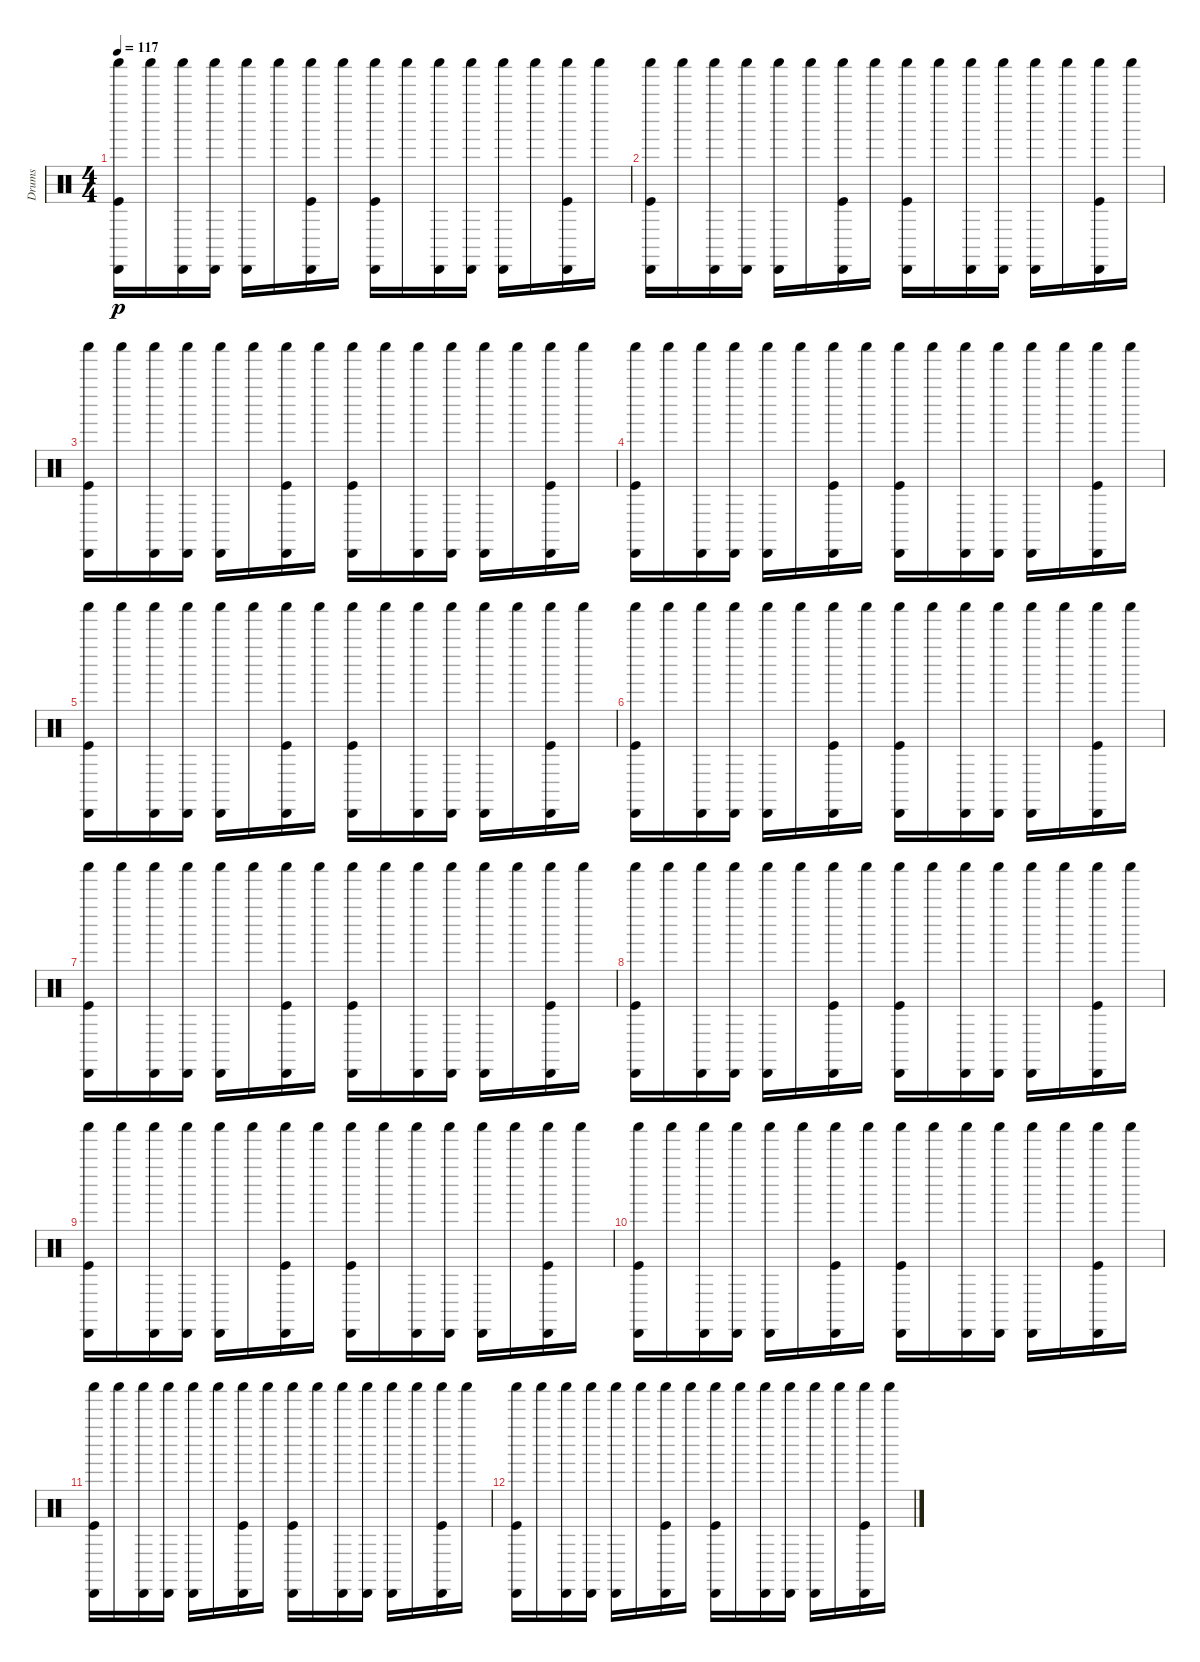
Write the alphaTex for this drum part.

\track ("Drums" "Drums") {instrument percussion}
\staff {score}
\articulation defaults
\ts (4 4)
\tempo 117
\clef neutral
\ks c
("Kick (hit)" "Shaker (hit)" "Cabasa (hit)").16{dy p volume 12} "Shaker (hit)".16 ("Shaker (hit)" "Cabasa (hit)").16{volume 12} ("Shaker (hit)" "Cabasa (hit)").16 ("Shaker (hit)" "Cabasa (hit)").16{volume 12} "Shaker (hit)".16 ("Kick (hit)" "Shaker (hit)" "Cabasa (hit)").16{volume 12} "Shaker (hit)".16 ("Kick (hit)" "Shaker (hit)" "Cabasa (hit)").16{volume 12} "Shaker (hit)".16 ("Shaker (hit)" "Cabasa (hit)").16{volume 11} ("Shaker (hit)" "Cabasa (hit)").16 ("Shaker (hit)" "Cabasa (hit)").16{volume 11} "Shaker (hit)".16 ("Kick (hit)" "Shaker (hit)" "Cabasa (hit)").16{volume 11} "Shaker (hit)".16 |
("Kick (hit)" "Shaker (hit)" "Cabasa (hit)").16{volume 11} "Shaker (hit)".16 ("Shaker (hit)" "Cabasa (hit)").16{volume 11} ("Shaker (hit)" "Cabasa (hit)").16 ("Shaker (hit)" "Cabasa (hit)").16{volume 11} "Shaker (hit)".16 ("Kick (hit)" "Shaker (hit)" "Cabasa (hit)").16{volume 11} "Shaker (hit)".16 ("Kick (hit)" "Shaker (hit)" "Cabasa (hit)").16{volume 10} "Shaker (hit)".16 ("Shaker (hit)" "Cabasa (hit)").16{volume 10} ("Shaker (hit)" "Cabasa (hit)").16 ("Shaker (hit)" "Cabasa (hit)").16{volume 10} "Shaker (hit)".16 ("Kick (hit)" "Shaker (hit)" "Cabasa (hit)").16{volume 10} "Shaker (hit)".16 |
("Kick (hit)" "Shaker (hit)" "Cabasa (hit)").16{volume 10} "Shaker (hit)".16 ("Shaker (hit)" "Cabasa (hit)").16{volume 10} ("Shaker (hit)" "Cabasa (hit)").16 ("Shaker (hit)" "Cabasa (hit)").16{volume 10} "Shaker (hit)".16 ("Kick (hit)" "Shaker (hit)" "Cabasa (hit)").16{volume 10} "Shaker (hit)".16 ("Kick (hit)" "Shaker (hit)" "Cabasa (hit)").16{volume 10} "Shaker (hit)".16 ("Shaker (hit)" "Cabasa (hit)").16{volume 9} ("Shaker (hit)" "Cabasa (hit)").16 ("Shaker (hit)" "Cabasa (hit)").16{volume 9} "Shaker (hit)".16 ("Kick (hit)" "Shaker (hit)" "Cabasa (hit)").16{volume 9} "Shaker (hit)".16 |
("Kick (hit)" "Shaker (hit)" "Cabasa (hit)").16{volume 9} "Shaker (hit)".16 ("Shaker (hit)" "Cabasa (hit)").16{volume 9} ("Shaker (hit)" "Cabasa (hit)").16 ("Shaker (hit)" "Cabasa (hit)").16{volume 9} "Shaker (hit)".16 ("Kick (hit)" "Shaker (hit)" "Cabasa (hit)").16{volume 9} "Shaker (hit)".16 ("Kick (hit)" "Shaker (hit)" "Cabasa (hit)").16{volume 8} "Shaker (hit)".16 ("Shaker (hit)" "Cabasa (hit)").16{volume 8} ("Shaker (hit)" "Cabasa (hit)").16 ("Shaker (hit)" "Cabasa (hit)").16{volume 8} "Shaker (hit)".16 ("Kick (hit)" "Shaker (hit)" "Cabasa (hit)").16{volume 8} "Shaker (hit)".16 |
("Kick (hit)" "Shaker (hit)" "Cabasa (hit)").16{volume 8} "Shaker (hit)".16 ("Shaker (hit)" "Cabasa (hit)").16{volume 8} ("Shaker (hit)" "Cabasa (hit)").16 ("Shaker (hit)" "Cabasa (hit)").16{volume 8} "Shaker (hit)".16 ("Kick (hit)" "Shaker (hit)" "Cabasa (hit)").16{volume 8} "Shaker (hit)".16 ("Kick (hit)" "Shaker (hit)" "Cabasa (hit)").16{volume 8} "Shaker (hit)".16 ("Shaker (hit)" "Cabasa (hit)").16{volume 7} ("Shaker (hit)" "Cabasa (hit)").16 ("Shaker (hit)" "Cabasa (hit)").16{volume 7} "Shaker (hit)".16 ("Kick (hit)" "Shaker (hit)" "Cabasa (hit)").16{volume 7} "Shaker (hit)".16 |
("Kick (hit)" "Shaker (hit)" "Cabasa (hit)").16{volume 7} "Shaker (hit)".16 ("Shaker (hit)" "Cabasa (hit)").16{volume 7} ("Shaker (hit)" "Cabasa (hit)").16 ("Shaker (hit)" "Cabasa (hit)").16{volume 7} "Shaker (hit)".16 ("Kick (hit)" "Shaker (hit)" "Cabasa (hit)").16{volume 7} "Shaker (hit)".16 ("Kick (hit)" "Shaker (hit)" "Cabasa (hit)").16{volume 6} "Shaker (hit)".16 ("Shaker (hit)" "Cabasa (hit)").16{volume 6} ("Shaker (hit)" "Cabasa (hit)").16 ("Shaker (hit)" "Cabasa (hit)").16{volume 6} "Shaker (hit)".16 ("Kick (hit)" "Shaker (hit)" "Cabasa (hit)").16{volume 6} "Shaker (hit)".16 |
("Kick (hit)" "Shaker (hit)" "Cabasa (hit)").16{volume 6} "Shaker (hit)".16 ("Shaker (hit)" "Cabasa (hit)").16{volume 6} ("Shaker (hit)" "Cabasa (hit)").16 ("Shaker (hit)" "Cabasa (hit)").16{volume 6} "Shaker (hit)".16 ("Kick (hit)" "Shaker (hit)" "Cabasa (hit)").16{volume 6} "Shaker (hit)".16 ("Kick (hit)" "Shaker (hit)" "Cabasa (hit)").16{volume 6} "Shaker (hit)".16 ("Shaker (hit)" "Cabasa (hit)").16{volume 5} ("Shaker (hit)" "Cabasa (hit)").16 ("Shaker (hit)" "Cabasa (hit)").16{volume 5} "Shaker (hit)".16 ("Kick (hit)" "Shaker (hit)" "Cabasa (hit)").16{volume 5} "Shaker (hit)".16 |
("Kick (hit)" "Shaker (hit)" "Cabasa (hit)").16{volume 5} "Shaker (hit)".16 ("Shaker (hit)" "Cabasa (hit)").16{volume 5} ("Shaker (hit)" "Cabasa (hit)").16 ("Shaker (hit)" "Cabasa (hit)").16{volume 5} "Shaker (hit)".16 ("Kick (hit)" "Shaker (hit)" "Cabasa (hit)").16{volume 5} "Shaker (hit)".16 ("Kick (hit)" "Shaker (hit)" "Cabasa (hit)").16{volume 4} "Shaker (hit)".16 ("Shaker (hit)" "Cabasa (hit)").16{volume 4} ("Shaker (hit)" "Cabasa (hit)").16 ("Shaker (hit)" "Cabasa (hit)").16{volume 4} "Shaker (hit)".16 ("Kick (hit)" "Shaker (hit)" "Cabasa (hit)").16{volume 4} "Shaker (hit)".16 |
("Kick (hit)" "Shaker (hit)" "Cabasa (hit)").16{volume 4} "Shaker (hit)".16 ("Shaker (hit)" "Cabasa (hit)").16{volume 4} ("Shaker (hit)" "Cabasa (hit)").16 ("Shaker (hit)" "Cabasa (hit)").16{volume 4} "Shaker (hit)".16 ("Kick (hit)" "Shaker (hit)" "Cabasa (hit)").16{volume 4} "Shaker (hit)".16 ("Kick (hit)" "Shaker (hit)" "Cabasa (hit)").16{volume 4} "Shaker (hit)".16 ("Shaker (hit)" "Cabasa (hit)").16{volume 3} ("Shaker (hit)" "Cabasa (hit)").16 ("Shaker (hit)" "Cabasa (hit)").16{volume 3} "Shaker (hit)".16 ("Kick (hit)" "Shaker (hit)" "Cabasa (hit)").16{volume 3} "Shaker (hit)".16 |
("Kick (hit)" "Shaker (hit)" "Cabasa (hit)").16{volume 3} "Shaker (hit)".16 ("Shaker (hit)" "Cabasa (hit)").16{volume 3} ("Shaker (hit)" "Cabasa (hit)").16 ("Shaker (hit)" "Cabasa (hit)").16{volume 3} "Shaker (hit)".16 ("Kick (hit)" "Shaker (hit)" "Cabasa (hit)").16{volume 3} "Shaker (hit)".16 ("Kick (hit)" "Shaker (hit)" "Cabasa (hit)").16{volume 2} "Shaker (hit)".16 ("Shaker (hit)" "Cabasa (hit)").16{volume 2} ("Shaker (hit)" "Cabasa (hit)").16 ("Shaker (hit)" "Cabasa (hit)").16{volume 2} "Shaker (hit)".16 ("Kick (hit)" "Shaker (hit)" "Cabasa (hit)").16{volume 2} "Shaker (hit)".16 |
("Kick (hit)" "Shaker (hit)" "Cabasa (hit)").16{volume 2} "Shaker (hit)".16 ("Shaker (hit)" "Cabasa (hit)").16{volume 2} ("Shaker (hit)" "Cabasa (hit)").16 ("Shaker (hit)" "Cabasa (hit)").16{volume 2} "Shaker (hit)".16 ("Kick (hit)" "Shaker (hit)" "Cabasa (hit)").16{volume 2} "Shaker (hit)".16 ("Kick (hit)" "Shaker (hit)" "Cabasa (hit)").16{volume 2} "Shaker (hit)".16 ("Shaker (hit)" "Cabasa (hit)").16{volume 1} ("Shaker (hit)" "Cabasa (hit)").16 ("Shaker (hit)" "Cabasa (hit)").16{volume 1} "Shaker (hit)".16 ("Kick (hit)" "Shaker (hit)" "Cabasa (hit)").16{volume 1} "Shaker (hit)".16 |
("Kick (hit)" "Shaker (hit)" "Cabasa (hit)").16{volume 1} "Shaker (hit)".16 ("Shaker (hit)" "Cabasa (hit)").16{volume 1} ("Shaker (hit)" "Cabasa (hit)").16 ("Shaker (hit)" "Cabasa (hit)").16{volume 1} "Shaker (hit)".16 ("Kick (hit)" "Shaker (hit)" "Cabasa (hit)").16{volume 1} "Shaker (hit)".16 ("Kick (hit)" "Shaker (hit)" "Cabasa (hit)").16{volume 0} "Shaker (hit)".16 ("Shaker (hit)" "Cabasa (hit)").16{volume 0} ("Shaker (hit)" "Cabasa (hit)").16 ("Shaker (hit)" "Cabasa (hit)").16{volume 0} "Shaker (hit)".16 ("Kick (hit)" "Shaker (hit)" "Cabasa (hit)").16{volume 0} "Shaker (hit)".16
